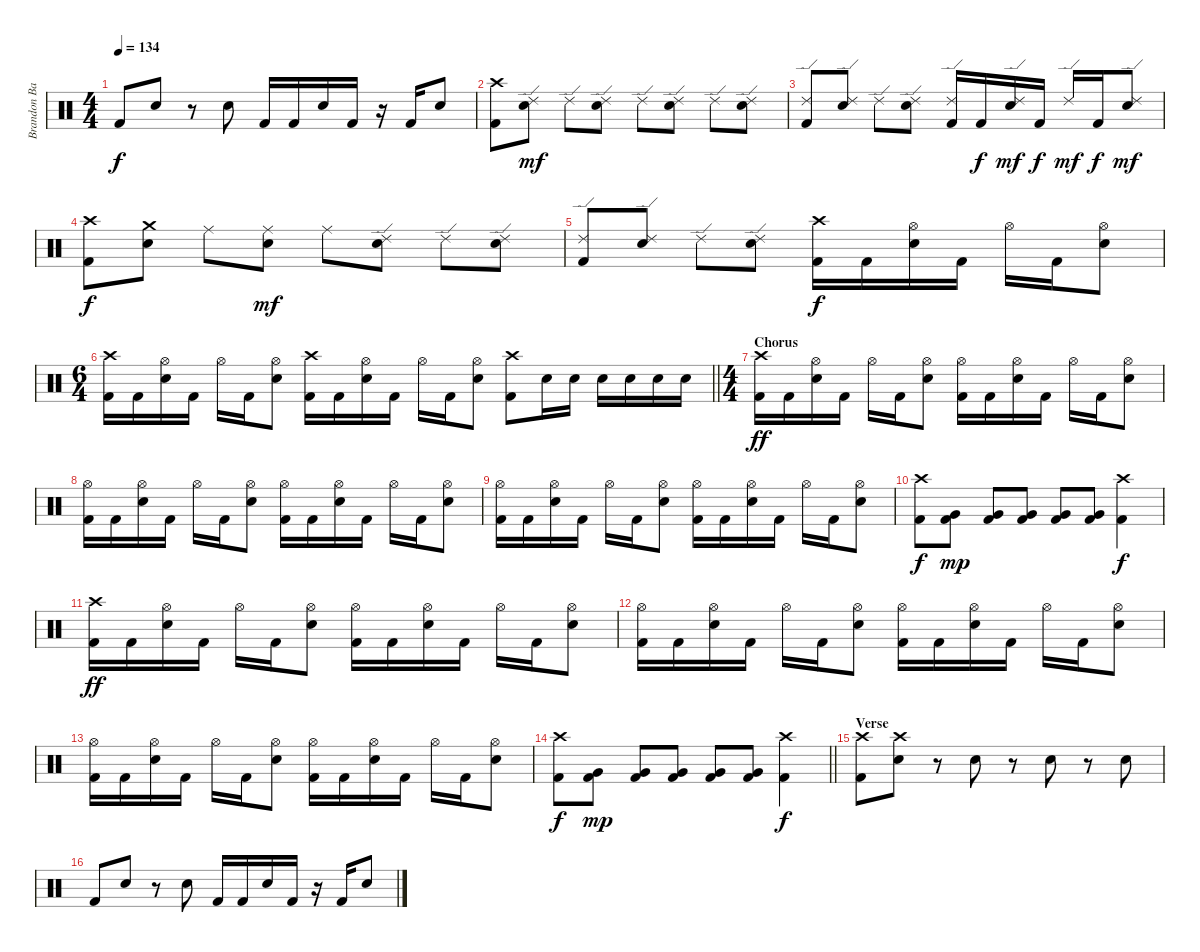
\track ("Brandon Barnes - Drums" "Brandon Ba") {instrument percussion}
\staff {score}
\articulation defaults
\ts (4 4)
\tempo 134
\clef neutral
\ks c "Kick (hit) 2".8{dy f} "Snare (hit) 2".8
r.8 "Snare (hit) 2".8 "Kick (hit) 2".16 "Kick (hit) 2".16 "Snare (hit) 2".16 "Kick (hit) 2".16 r.16 "Kick (hit) 2".16 "Snare (hit) 2".8 |
("Kick (hit) 2" "Crash high (hit)").8 ("Snare (hit) 2" "Ride (edge) 2").8{dy mf} "Ride (edge) 2".8 ("Snare (hit) 2" "Ride (edge) 2").8 "Ride (edge) 2".8 ("Snare (hit) 2" "Ride (edge) 2").8 "Ride (edge) 2".8 ("Snare (hit) 2" "Ride (edge) 2").8 |
("Kick (hit) 2" "Ride (edge) 2").8 ("Snare (hit) 2" "Ride (edge) 2").8 "Ride (edge) 2".8 ("Snare (hit) 2" "Ride (edge) 2").8 ("Kick (hit) 2" "Ride (edge) 2").16 "Kick (hit) 2".16{dy f} ("Snare (hit) 2" "Ride (edge) 2").16{dy mf} "Kick (hit) 2".16{dy f} "Ride (edge) 2".16{dy mf} "Kick (hit) 2".16{dy f} ("Snare (hit) 2" "Ride (edge) 2").8{dy mf} |
("Kick (hit) 2" "Crash high (hit)").8{dy f} ("Snare (hit) 2" "Crash medium (hit)").8 "Ride (middle)".8 ("Snare (hit) 2" "Ride (middle)").8{dy mf} "Ride (middle)".8 ("Snare (hit) 2" "Ride (edge) 2").8 "Ride (edge) 2".8 ("Snare (hit) 2" "Ride (edge) 2").8 |
("Kick (hit) 2" "Ride (edge) 2").8 ("Snare (hit) 2" "Ride (edge) 2").8 "Ride (edge) 2".8 ("Snare (hit) 2" "Ride (edge) 2").8 ("Kick (hit) 2" "Crash high (hit)").16{dy f} "Kick (hit) 2".16 ("Snare (hit) 2" "Hi-Hat (open)").16 "Kick (hit) 2".16 "Hi-Hat (open)".16 "Kick (hit) 2".16 ("Snare (hit) 2" "Hi-Hat (open)").8 |
\ts (6 4)
\barLineRight lightlight
("Kick (hit) 2" "Crash high (hit)").16 "Kick (hit) 2".16 ("Snare (hit) 2" "Hi-Hat (open)").16 "Kick (hit) 2".16 "Hi-Hat (open)".16 "Kick (hit) 2".16 ("Snare (hit) 2" "Hi-Hat (open)").8 ("Kick (hit) 2" "Crash high (hit)").16 "Kick (hit) 2".16 ("Snare (hit) 2" "Hi-Hat (open)").16 "Kick (hit) 2".16 "Hi-Hat (open)".16 "Kick (hit) 2".16 ("Snare (hit) 2" "Hi-Hat (open)").8 ("Kick (hit) 2" "Crash high (hit)").8 "Snare (hit) 2".16 "Snare (hit) 2".16 "Snare (hit) 2".16 "Snare (hit) 2".16 "Snare (hit) 2".16 "Snare (hit) 2".16 |
\ts (4 4)
\section ("" "Chorus")
("Crash high (hit)" "Kick (hit) 2").16{dy ff} "Kick (hit) 2".16 ("Snare (hit) 2" "Hi-Hat (open)").16 "Kick (hit) 2".16 "Hi-Hat (open)".16 "Kick (hit) 2".16 ("Snare (hit) 2" "Hi-Hat (open)").8 ("Hi-Hat (open)" "Kick (hit) 2").16 "Kick (hit) 2".16 ("Snare (hit) 2" "Hi-Hat (open)").16 "Kick (hit) 2".16 "Hi-Hat (open)".16 "Kick (hit) 2".16 ("Snare (hit) 2" "Hi-Hat (open)").8 |
("Hi-Hat (open)" "Kick (hit) 2").16 "Kick (hit) 2".16 ("Snare (hit) 2" "Hi-Hat (open)").16 "Kick (hit) 2".16 "Hi-Hat (open)".16 "Kick (hit) 2".16 ("Snare (hit) 2" "Hi-Hat (open)").8 ("Hi-Hat (open)" "Kick (hit) 2").16 "Kick (hit) 2".16 ("Snare (hit) 2" "Hi-Hat (open)").16 "Kick (hit) 2".16 "Hi-Hat (open)".16 "Kick (hit) 2".16 ("Snare (hit) 2" "Hi-Hat (open)").8 |
("Hi-Hat (open)" "Kick (hit) 2").16 "Kick (hit) 2".16 ("Snare (hit) 2" "Hi-Hat (open)").16 "Kick (hit) 2".16 "Hi-Hat (open)".16 "Kick (hit) 2".16 ("Snare (hit) 2" "Hi-Hat (open)").8 ("Hi-Hat (open)" "Kick (hit) 2").16 "Kick (hit) 2".16 ("Snare (hit) 2" "Hi-Hat (open)").16 "Kick (hit) 2".16 "Hi-Hat (open)".16 "Kick (hit) 2".16 ("Snare (hit) 2" "Hi-Hat (open)").8 |
("Kick (hit) 2" "Crash high (hit)").8{dy f} ("Very Low Tom (hit)" "Kick (hit) 2").8{dy mp} ("Very Low Tom (hit)" "Kick (hit) 2").8 ("Very Low Tom (hit)" "Kick (hit) 2").8 ("Very Low Tom (hit)" "Kick (hit) 2").8 ("Very Low Tom (hit)" "Kick (hit) 2").8 ("Kick (hit) 2" "Crash high (hit)").4{dy f} |
("Crash high (hit)" "Kick (hit) 2").16{dy ff} "Kick (hit) 2".16 ("Snare (hit) 2" "Hi-Hat (open)").16 "Kick (hit) 2".16 "Hi-Hat (open)".16 "Kick (hit) 2".16 ("Snare (hit) 2" "Hi-Hat (open)").8 ("Hi-Hat (open)" "Kick (hit) 2").16 "Kick (hit) 2".16 ("Snare (hit) 2" "Hi-Hat (open)").16 "Kick (hit) 2".16 "Hi-Hat (open)".16 "Kick (hit) 2".16 ("Snare (hit) 2" "Hi-Hat (open)").8 |
("Hi-Hat (open)" "Kick (hit) 2").16 "Kick (hit) 2".16 ("Snare (hit) 2" "Hi-Hat (open)").16 "Kick (hit) 2".16 "Hi-Hat (open)".16 "Kick (hit) 2".16 ("Snare (hit) 2" "Hi-Hat (open)").8 ("Hi-Hat (open)" "Kick (hit) 2").16 "Kick (hit) 2".16 ("Snare (hit) 2" "Hi-Hat (open)").16 "Kick (hit) 2".16 "Hi-Hat (open)".16 "Kick (hit) 2".16 ("Snare (hit) 2" "Hi-Hat (open)").8 |
("Hi-Hat (open)" "Kick (hit) 2").16 "Kick (hit) 2".16 ("Snare (hit) 2" "Hi-Hat (open)").16 "Kick (hit) 2".16 "Hi-Hat (open)".16 "Kick (hit) 2".16 ("Snare (hit) 2" "Hi-Hat (open)").8 ("Hi-Hat (open)" "Kick (hit) 2").16 "Kick (hit) 2".16 ("Snare (hit) 2" "Hi-Hat (open)").16 "Kick (hit) 2".16 "Hi-Hat (open)".16 "Kick (hit) 2".16 ("Snare (hit) 2" "Hi-Hat (open)").8 |
\barLineRight lightlight
("Kick (hit) 2" "Crash high (hit)").8{dy f} ("Very Low Tom (hit)" "Kick (hit) 2").8{dy mp} ("Very Low Tom (hit)" "Kick (hit) 2").8 ("Very Low Tom (hit)" "Kick (hit) 2").8 ("Very Low Tom (hit)" "Kick (hit) 2").8 ("Very Low Tom (hit)" "Kick (hit) 2").8 ("Kick (hit) 2" "Crash high (hit)").4{dy f} |
\section ("" "Verse")
("Kick (hit) 2" "Crash high (hit)").8 ("Snare (hit) 2" "Crash high (hit)").8 r.8 "Snare (hit) 2".8 r.8 "Snare (hit) 2".8 r.8 "Snare (hit) 2".8 |
"Kick (hit) 2".8 "Snare (hit) 2".8 r.8 "Snare (hit) 2".8 "Kick (hit) 2".16 "Kick (hit) 2".16 "Snare (hit) 2".16 "Kick (hit) 2".16 r.16 "Kick (hit) 2".16 "Snare (hit) 2".8
